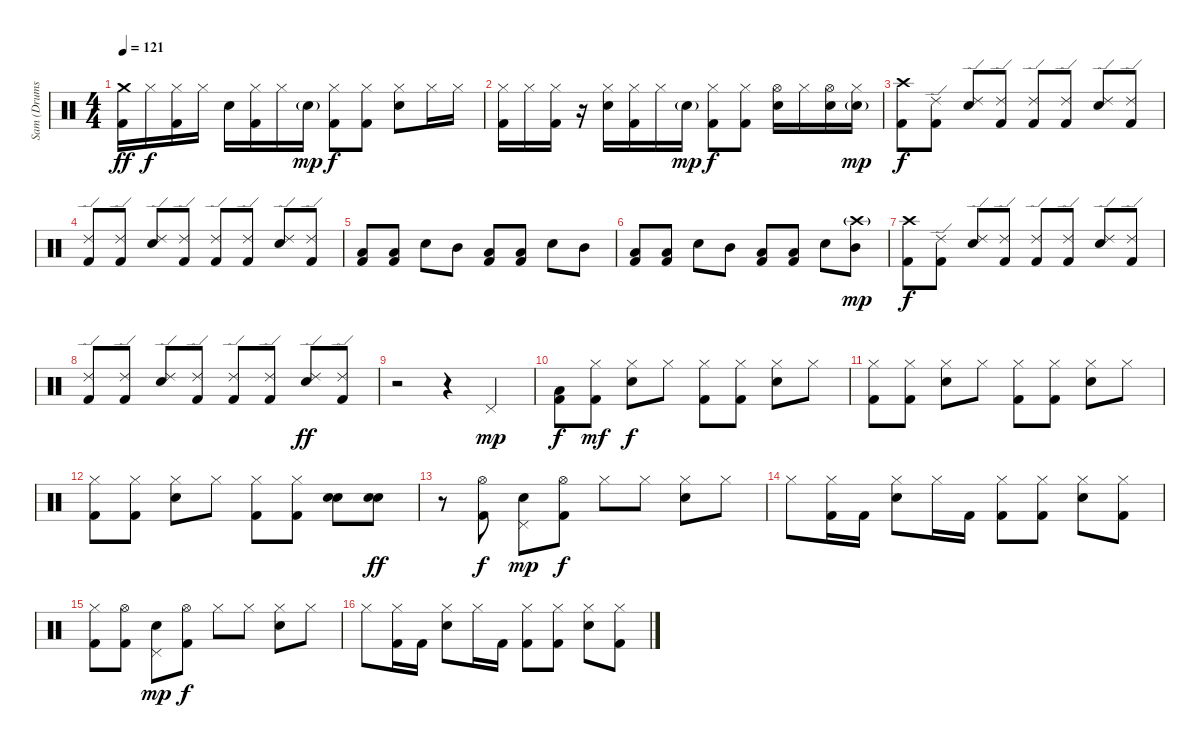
\track ("Sam (Drums)" "Sam (Drums") {instrument percussion}
\staff {score}
\articulation defaults
\ts (4 4)
\tempo 121
\clef neutral
\ks c
("Crash medium (hit)" "Kick (hit) 2").16{dy ff} "Hi-Hat (closed)".16{dy f} ("Hi-Hat (closed)" "Kick (hit) 2").16 "Hi-Hat (closed)".16 "Snare (hit) 2".16 ("Hi-Hat (closed)" "Kick (hit) 2").16 "Hi-Hat (closed)".16 "Snare (hit) 2"{g}.16{dy mp} ("Hi-Hat (closed)" "Kick (hit) 2").8{dy f} ("Hi-Hat (closed)" "Kick (hit) 2").8 ("Hi-Hat (closed)" "Snare (hit) 2").8 "Hi-Hat (closed)".16 "Hi-Hat (closed)".16 |
("Hi-Hat (closed)" "Kick (hit) 2").16 "Hi-Hat (closed)".16 ("Hi-Hat (closed)" "Kick (hit) 2").16 r.16 ("Hi-Hat (closed)" "Snare (hit) 2").16 ("Hi-Hat (closed)" "Kick (hit) 2").16 "Hi-Hat (closed)".16 "Snare (hit) 2"{g}.16{dy mp} ("Hi-Hat (closed)" "Kick (hit) 2").8{dy f} ("Hi-Hat (closed)" "Kick (hit) 2").8 ("Hi-Hat (open)" "Snare (hit) 2").16 "Hi-Hat (closed)".16 ("Hi-Hat (open)" "Snare (hit) 2").16 ("Hi-Hat (closed)" "Snare (hit) 2"{g}).16{dy mp} |
("Crash high (hit)" "Kick (hit) 2").8{dy f} ("Ride (edge) 2" "Kick (hit) 2").8 ("Ride (edge) 2" "Snare (hit) 2").8 ("Ride (edge) 2" "Kick (hit) 2").8 ("Ride (edge) 2" "Kick (hit) 2").8 ("Ride (edge) 2" "Kick (hit) 2").8 ("Ride (edge) 2" "Snare (hit) 2").8 ("Ride (edge) 2" "Kick (hit) 2").8 |
("Ride (edge) 2" "Kick (hit) 2").8 ("Ride (edge) 2" "Kick (hit) 2").8 ("Ride (edge) 2" "Snare (hit) 2").8 ("Ride (edge) 2" "Kick (hit) 2").8 ("Ride (edge) 2" "Kick (hit) 2").8 ("Ride (edge) 2" "Kick (hit) 2").8 ("Ride (edge) 2" "Snare (hit) 2").8 ("Ride (edge) 2" "Kick (hit) 2").8 |
("Low Floor Tom (hit)" "Kick (hit) 2").8 ("Low Floor Tom (hit)" "Kick (hit) 2").8 "Snare (hit) 2".8 "Mid Tom (hit)".8 ("Low Floor Tom (hit)" "Kick (hit) 2").8 ("Low Floor Tom (hit)" "Kick (hit) 2").8 "Snare (hit) 2".8 "Mid Tom (hit)".8 |
("Low Floor Tom (hit)" "Kick (hit) 2").8 ("Low Floor Tom (hit)" "Kick (hit) 2").8 "Snare (hit) 2".8 "Mid Tom (hit)".8 ("Low Floor Tom (hit)" "Kick (hit) 2").8 ("Low Floor Tom (hit)" "Kick (hit) 2").8 "Snare (hit) 2".8 ("Crash high (hit)"{g} "Mid Tom (hit)").8{dy mp} |
("Crash high (hit)" "Kick (hit) 2").8{dy f} ("Ride (edge) 2" "Kick (hit) 2").8 ("Ride (edge) 2" "Snare (hit) 2").8 ("Ride (edge) 2" "Kick (hit) 2").8 ("Ride (edge) 2" "Kick (hit) 2").8 ("Ride (edge) 2" "Kick (hit) 2").8 ("Ride (edge) 2" "Snare (hit) 2").8 ("Ride (edge) 2" "Kick (hit) 2").8 |
("Ride (edge) 2" "Kick (hit) 2").8 ("Ride (edge) 2" "Kick (hit) 2").8 ("Ride (edge) 2" "Snare (hit) 2").8 ("Ride (edge) 2" "Kick (hit) 2").8 ("Ride (edge) 2" "Kick (hit) 2").8 ("Ride (edge) 2" "Kick (hit) 2").8 ("Ride (edge) 2" "Snare (hit) 2").8{dy ff} ("Ride (edge) 2" "Kick (hit) 2").8 |
r.2 r.4 "Pedal Hi-Hat (hit)".4{dy mp} |
("Low Floor Tom (hit)" "Kick (hit) 2").8{dy f} ("Hi-Hat (closed)" "Kick (hit) 2").8{dy mf} ("Hi-Hat (closed)" "Snare (hit) 2").8{dy f} "Hi-Hat (closed)".8 ("Hi-Hat (closed)" "Kick (hit) 2").8 ("Hi-Hat (closed)" "Kick (hit) 2").8 ("Hi-Hat (closed)" "Snare (hit) 2").8 "Hi-Hat (closed)".8 |
("Hi-Hat (closed)" "Kick (hit) 2").8 ("Hi-Hat (closed)" "Kick (hit) 2").8 ("Hi-Hat (closed)" "Snare (hit) 2").8 "Hi-Hat (closed)".8 ("Hi-Hat (closed)" "Kick (hit) 2").8 ("Hi-Hat (closed)" "Kick (hit) 2").8 ("Hi-Hat (closed)" "Snare (hit) 2").8 "Hi-Hat (closed)".8 |
("Hi-Hat (closed)" "Kick (hit) 2").8 ("Hi-Hat (closed)" "Kick (hit) 2").8 ("Hi-Hat (closed)" "Snare (hit) 2").8 "Hi-Hat (closed)".8 ("Hi-Hat (closed)" "Kick (hit) 2").8 ("Hi-Hat (closed)" "Kick (hit) 2").8 ("Snare (hit) 2" "Snare (hit) 2").8 ("Snare (hit) 2" "Snare (hit) 2").8{dy ff} |
r.8 ("Hi-Hat (open)" "Kick (hit) 2").8{dy f} ("Pedal Hi-Hat (hit)" "Snare (hit) 2").8{dy mp} ("Hi-Hat (open)" "Kick (hit) 2").8{dy f} "Hi-Hat (closed)".8 "Hi-Hat (closed)".8 ("Hi-Hat (closed)" "Snare (hit) 2").8 "Hi-Hat (closed)".8 |
"Hi-Hat (closed)".8 ("Hi-Hat (closed)" "Kick (hit) 2").16 "Kick (hit) 2".16 ("Hi-Hat (closed)" "Snare (hit) 2").8 "Hi-Hat (closed)".16 "Kick (hit) 2".16 ("Hi-Hat (closed)" "Kick (hit) 2").8 ("Hi-Hat (closed)" "Kick (hit) 2").8 ("Hi-Hat (closed)" "Snare (hit) 2").8 ("Hi-Hat (closed)" "Kick (hit) 2").8 |
("Hi-Hat (closed)" "Kick (hit) 2").8 ("Hi-Hat (open)" "Kick (hit) 2").8 ("Pedal Hi-Hat (hit)" "Snare (hit) 2").8{dy mp} ("Hi-Hat (open)" "Kick (hit) 2").8{dy f} "Hi-Hat (closed)".8 "Hi-Hat (closed)".8 ("Hi-Hat (closed)" "Snare (hit) 2").8 "Hi-Hat (closed)".8 |
"Hi-Hat (closed)".8 ("Hi-Hat (closed)" "Kick (hit) 2").16 "Kick (hit) 2".16 ("Hi-Hat (closed)" "Snare (hit) 2").8 "Hi-Hat (closed)".16 "Kick (hit) 2".16 ("Hi-Hat (closed)" "Kick (hit) 2").8 ("Hi-Hat (closed)" "Kick (hit) 2").8 ("Hi-Hat (closed)" "Snare (hit) 2").8 ("Hi-Hat (closed)" "Kick (hit) 2").8
